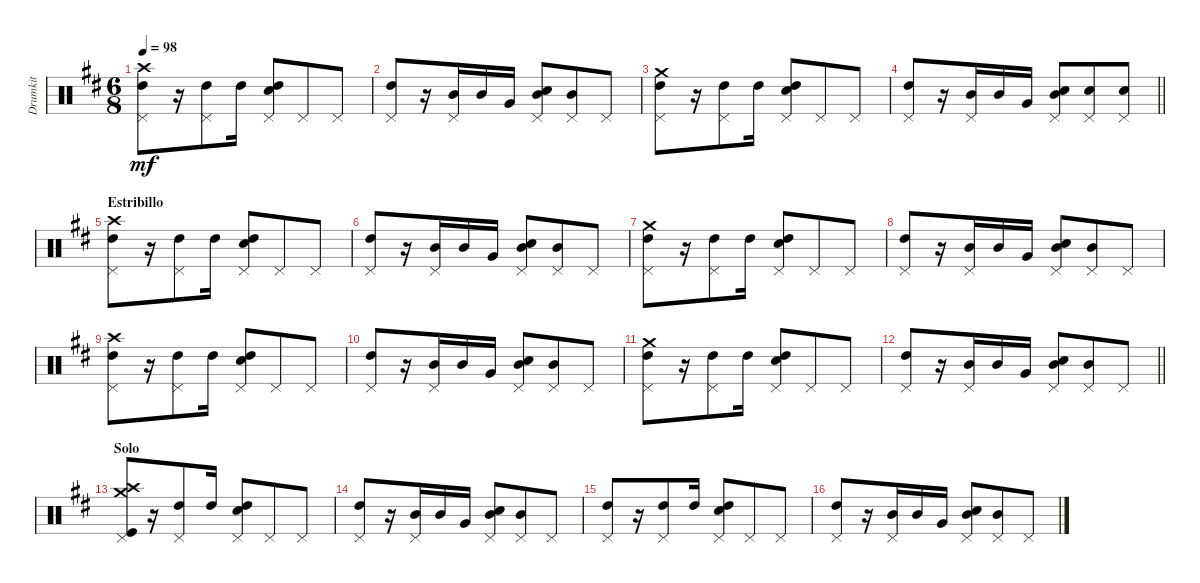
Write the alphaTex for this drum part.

\track ("Drumkit" "Drumkit") {instrument percussion}
\staff {score}
\articulation defaults
\ts (6 8)
\tempo 98
\clef neutral
\ks d
("High Tom (hit)" "Pedal Hi-Hat (hit)" "Crash high (hit)").8{dy mf} r.16 ("High Tom (hit)" "Pedal Hi-Hat (hit)").8 "High Tom (hit)".16 ("High Tom (hit)" "Snare (hit) 2" "Pedal Hi-Hat (hit)").8 "Pedal Hi-Hat (hit)".8 "Pedal Hi-Hat (hit)".8 |
("High Tom (hit)" "Pedal Hi-Hat (hit)").8 r.16 ("Mid Tom (hit)" "Pedal Hi-Hat (hit)").16 "Mid Tom (hit)".16 "Very Low Tom (hit)".16 ("Mid Tom (hit)" "Snare (hit) 2" "Pedal Hi-Hat (hit)").8 ("Mid Tom (hit)" "Pedal Hi-Hat (hit)").8 "Pedal Hi-Hat (hit)".8 |
("High Tom (hit)" "Pedal Hi-Hat (hit)" "Crash medium (hit)").8 r.16 ("High Tom (hit)" "Pedal Hi-Hat (hit)").8 "High Tom (hit)".16 ("High Tom (hit)" "Snare (hit) 2" "Pedal Hi-Hat (hit)").8 "Pedal Hi-Hat (hit)".8 "Pedal Hi-Hat (hit)".8 |
\barLineRight lightlight
("High Tom (hit)" "Pedal Hi-Hat (hit)").8 r.16 ("Mid Tom (hit)" "Pedal Hi-Hat (hit)").16 "Mid Tom (hit)".16 "Very Low Tom (hit)".16 ("Mid Tom (hit)" "Snare (hit) 2" "Pedal Hi-Hat (hit)").8 ("Pedal Hi-Hat (hit)" "Snare (hit) 2").8 ("Pedal Hi-Hat (hit)" "Snare (hit) 2").8 |
\section ("" "Estribillo")
("High Tom (hit)" "Pedal Hi-Hat (hit)" "Crash high (hit)").8 r.16 ("High Tom (hit)" "Pedal Hi-Hat (hit)").8 "High Tom (hit)".16 ("High Tom (hit)" "Snare (hit) 2" "Pedal Hi-Hat (hit)").8 "Pedal Hi-Hat (hit)".8 "Pedal Hi-Hat (hit)".8 |
("High Tom (hit)" "Pedal Hi-Hat (hit)").8 r.16 ("Mid Tom (hit)" "Pedal Hi-Hat (hit)").16 "Mid Tom (hit)".16 "Very Low Tom (hit)".16 ("Mid Tom (hit)" "Snare (hit) 2" "Pedal Hi-Hat (hit)").8 ("Mid Tom (hit)" "Pedal Hi-Hat (hit)").8 "Pedal Hi-Hat (hit)".8 |
("High Tom (hit)" "Pedal Hi-Hat (hit)" "Crash medium (hit)").8 r.16 ("High Tom (hit)" "Pedal Hi-Hat (hit)").8 "High Tom (hit)".16 ("High Tom (hit)" "Snare (hit) 2" "Pedal Hi-Hat (hit)").8 "Pedal Hi-Hat (hit)".8 "Pedal Hi-Hat (hit)".8 |
("High Tom (hit)" "Pedal Hi-Hat (hit)").8 r.16 ("Mid Tom (hit)" "Pedal Hi-Hat (hit)").16 "Mid Tom (hit)".16 "Very Low Tom (hit)".16 ("Mid Tom (hit)" "Snare (hit) 2" "Pedal Hi-Hat (hit)").8 ("Mid Tom (hit)" "Pedal Hi-Hat (hit)").8 "Pedal Hi-Hat (hit)".8 |
("High Tom (hit)" "Pedal Hi-Hat (hit)" "Crash high (hit)").8 r.16 ("High Tom (hit)" "Pedal Hi-Hat (hit)").8 "High Tom (hit)".16 ("High Tom (hit)" "Snare (hit) 2" "Pedal Hi-Hat (hit)").8 "Pedal Hi-Hat (hit)".8 "Pedal Hi-Hat (hit)".8 |
("High Tom (hit)" "Pedal Hi-Hat (hit)").8 r.16 ("Mid Tom (hit)" "Pedal Hi-Hat (hit)").16 "Mid Tom (hit)".16 "Very Low Tom (hit)".16 ("Mid Tom (hit)" "Snare (hit) 2" "Pedal Hi-Hat (hit)").8 ("Mid Tom (hit)" "Pedal Hi-Hat (hit)").8 "Pedal Hi-Hat (hit)".8 |
("High Tom (hit)" "Pedal Hi-Hat (hit)" "Crash medium (hit)").8 r.16 ("High Tom (hit)" "Pedal Hi-Hat (hit)").8 "High Tom (hit)".16 ("High Tom (hit)" "Snare (hit) 2" "Pedal Hi-Hat (hit)").8 "Pedal Hi-Hat (hit)".8 "Pedal Hi-Hat (hit)".8 |
\barLineRight lightlight
("High Tom (hit)" "Pedal Hi-Hat (hit)").8 r.16 ("Mid Tom (hit)" "Pedal Hi-Hat (hit)").16 "Mid Tom (hit)".16 "Very Low Tom (hit)".16 ("Mid Tom (hit)" "Snare (hit) 2" "Pedal Hi-Hat (hit)").8 ("Mid Tom (hit)" "Pedal Hi-Hat (hit)").8 "Pedal Hi-Hat (hit)".8 |
\section ("" "Solo")
("Pedal Hi-Hat (hit)" "Crash medium (hit)" "Crash high (hit)" "Kick (hit)").8 r.16 ("High Tom (hit)" "Pedal Hi-Hat (hit)").8 "High Tom (hit)".16 ("High Tom (hit)" "Snare (hit) 2" "Pedal Hi-Hat (hit)").8 "Pedal Hi-Hat (hit)".8 "Pedal Hi-Hat (hit)".8 |
("High Tom (hit)" "Pedal Hi-Hat (hit)").8 r.16 ("Mid Tom (hit)" "Pedal Hi-Hat (hit)").16 "Mid Tom (hit)".16 "Very Low Tom (hit)".16 ("Mid Tom (hit)" "Snare (hit) 2" "Pedal Hi-Hat (hit)").8 ("Mid Tom (hit)" "Pedal Hi-Hat (hit)").8 "Pedal Hi-Hat (hit)".8 |
("High Tom (hit)" "Pedal Hi-Hat (hit)").8 r.16 ("High Tom (hit)" "Pedal Hi-Hat (hit)").8 "High Tom (hit)".16 ("High Tom (hit)" "Snare (hit) 2" "Pedal Hi-Hat (hit)").8 "Pedal Hi-Hat (hit)".8 "Pedal Hi-Hat (hit)".8 |
("High Tom (hit)" "Pedal Hi-Hat (hit)").8 r.16 ("Mid Tom (hit)" "Pedal Hi-Hat (hit)").16 "Mid Tom (hit)".16 "Very Low Tom (hit)".16 ("Mid Tom (hit)" "Snare (hit) 2" "Pedal Hi-Hat (hit)").8 ("Mid Tom (hit)" "Pedal Hi-Hat (hit)").8 "Pedal Hi-Hat (hit)".8
